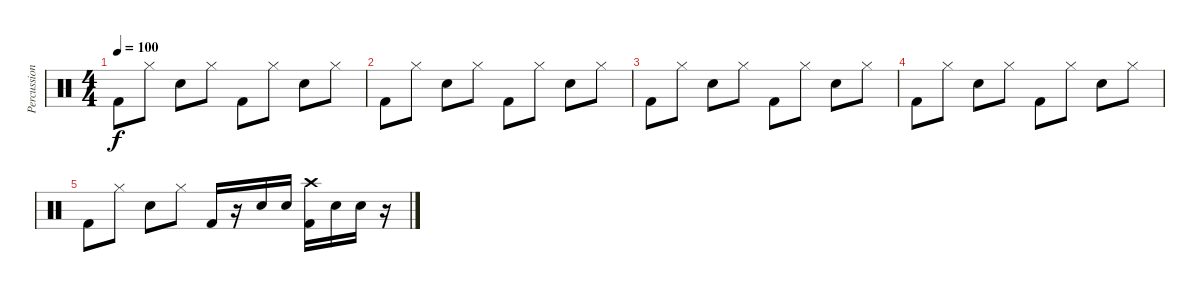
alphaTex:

\track ("Percussions" "Percussion") {instrument percussion}
\staff {score}
\articulation defaults
\ts (4 4)
\tempo 100
\clef neutral
\ks c "Kick (hit) 2".8{dy f} "Hi-Hat (closed)".8 "Electric Snare (hit)".8 "Hi-Hat (closed)".8 "Kick (hit) 2".8 "Hi-Hat (closed)".8 "Electric Snare (hit)".8 "Hi-Hat (closed)".8
|
"Kick (hit) 2".8 "Hi-Hat (closed)".8 "Electric Snare (hit)".8 "Hi-Hat (closed)".8 "Kick (hit) 2".8 "Hi-Hat (closed)".8 "Electric Snare (hit)".8 "Hi-Hat (closed)".8 |
"Kick (hit) 2".8 "Hi-Hat (closed)".8 "Electric Snare (hit)".8 "Hi-Hat (closed)".8 "Kick (hit) 2".8 "Hi-Hat (closed)".8 "Electric Snare (hit)".8 "Hi-Hat (closed)".8 |
"Kick (hit) 2".8 "Hi-Hat (closed)".8 "Electric Snare (hit)".8 "Hi-Hat (closed)".8 "Kick (hit) 2".8 "Hi-Hat (closed)".8 "Electric Snare (hit)".8 "Hi-Hat (closed)".8 |
"Kick (hit) 2".8 "Hi-Hat (closed)".8 "Electric Snare (hit)".8 "Hi-Hat (closed)".8 "Kick (hit) 2".16 r.16 "Electric Snare (hit)".16 "Electric Snare (hit)".16 ("Crash high (hit)" "Kick (hit) 2").16 "Electric Snare (hit)".16 "Electric Snare (hit)".16 r.16
